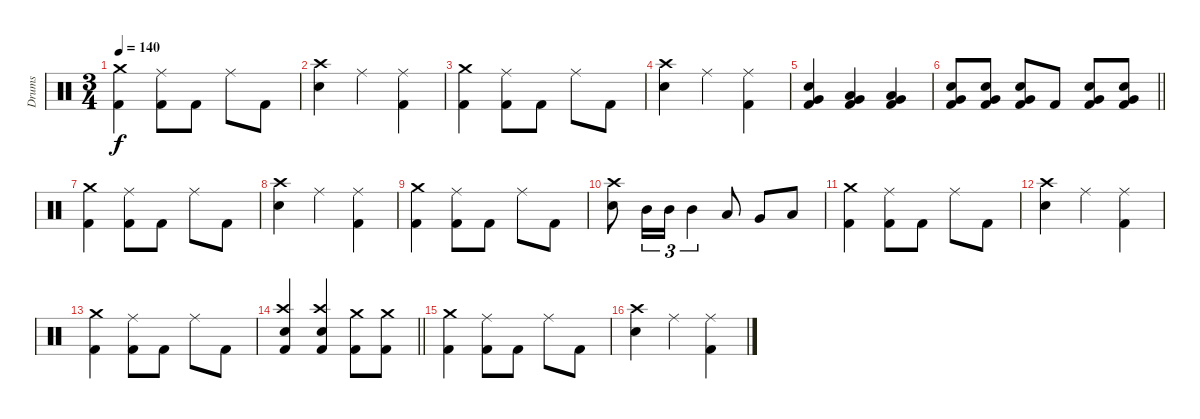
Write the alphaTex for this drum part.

\track ("Drums" "Drums") {instrument percussion}
\staff {score}
\articulation defaults
\ts (3 4)
\tempo 140
\clef neutral
\ks c
("Crash medium (hit)" "Kick (hit) 2").4{dy f} ("Ride (middle)" "Kick (hit) 2").8 "Kick (hit) 2".8 "Ride (middle)".8 "Kick (hit) 2".8 |
("Crash high (hit)" "Electric Snare (hit)").4 "Ride (middle)".4 ("Ride (middle)" "Kick (hit) 2").4 |
("Crash medium (hit)" "Kick (hit) 2").4 ("Ride (middle)" "Kick (hit) 2").8 "Kick (hit) 2".8 "Ride (middle)".8 "Kick (hit) 2".8 |
("Crash high (hit)" "Electric Snare (hit)").4 "Ride (middle)".4 ("Ride (middle)" "Kick (hit) 2").4 |
("Very Low Tom (hit)" "Electric Snare (hit)" "Kick (hit) 2").4 ("Very Low Tom (hit)" "Low Tom (hit)" "Kick (hit) 2").4 ("Low Floor Tom (hit)" "Very Low Tom (hit)" "Kick (hit) 2").4 |
\barLineRight lightlight
("Very Low Tom (hit)" "Electric Snare (hit)" "Kick (hit) 2").8 ("Very Low Tom (hit)" "Electric Snare (hit)" "Kick (hit) 2").8 ("Very Low Tom (hit)" "Electric Snare (hit)" "Kick (hit) 2").8 "Kick (hit) 2".8 ("Very Low Tom (hit)" "Electric Snare (hit)" "Kick (hit) 2").8 ("Very Low Tom (hit)" "Electric Snare (hit)" "Kick (hit) 2").8 |
("Crash medium (hit)" "Kick (hit) 2").4 ("Ride (middle)" "Kick (hit) 2").8 "Kick (hit) 2".8 "Ride (middle)".8 "Kick (hit) 2".8 |
("Crash high (hit)" "Electric Snare (hit)").4 "Ride (middle)".4 ("Ride (middle)" "Kick (hit) 2").4 |
("Crash medium (hit)" "Kick (hit) 2").4 ("Ride (middle)" "Kick (hit) 2").8 "Kick (hit) 2".8 "Ride (middle)".8 "Kick (hit) 2".8 |
("Crash high (hit)" "Electric Snare (hit)").8 "Mid Tom (hit)".16{tu (3 2)} "Mid Tom (hit)".16{tu (3 2)} "Mid Tom (hit)".4{tu (3 2)} "Low Tom (hit)".8 "Very Low Tom (hit)".8 "Low Floor Tom (hit)".8 |
("Crash medium (hit)" "Kick (hit) 2").4 ("Ride (middle)" "Kick (hit) 2").8 "Kick (hit) 2".8 "Ride (middle)".8 "Kick (hit) 2".8 |
("Crash high (hit)" "Electric Snare (hit)").4 "Ride (middle)".4 ("Ride (middle)" "Kick (hit) 2").4 |
("Crash medium (hit)" "Kick (hit) 2").4 ("Ride (middle)" "Kick (hit) 2").8 "Kick (hit) 2".8 "Ride (middle)".8 "Kick (hit) 2".8 |
\barLineRight lightlight
("Crash high (hit)" "Electric Snare (hit)" "Kick (hit) 2").4 ("Crash high (hit)" "Electric Snare (hit)" "Kick (hit) 2").4 ("Crash medium (hit)" "Kick (hit) 2").8 ("Crash medium (hit)" "Kick (hit) 2").8 |
("Crash medium (hit)" "Kick (hit) 2").4 ("Ride (middle)" "Kick (hit) 2").8 "Kick (hit) 2".8 "Ride (middle)".8 "Kick (hit) 2".8 |
("Crash high (hit)" "Electric Snare (hit)").4 "Ride (middle)".4 ("Ride (middle)" "Kick (hit) 2").4
